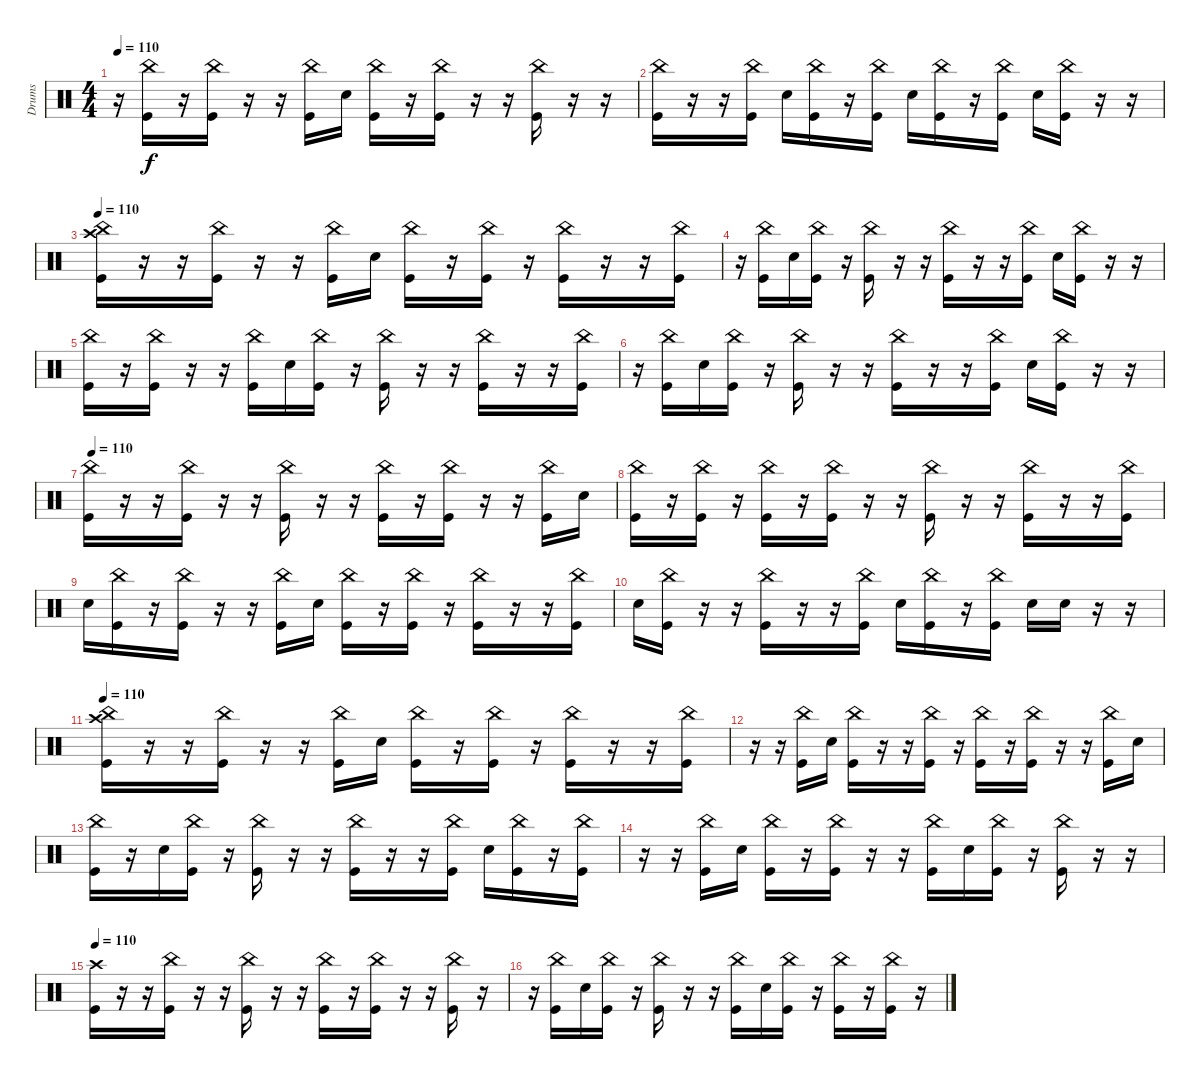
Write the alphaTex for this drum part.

\track ("Drums" "Drums") {instrument percussion}
\staff {score}
\articulation defaults
\ts (4 4)
\tempo 110
\clef neutral
\ks c
r.16{dy f} ("China (hit)" "Kick (hit)").16 r.16 ("China (hit)" "Kick (hit)").16 r.16 r.16 ("China (hit)" "Kick (hit)").16 "Snare (hit) 2".16 ("China (hit)" "Kick (hit)").16 r.16 ("China (hit)" "Kick (hit)").16 r.16 r.16 ("China (hit)" "Kick (hit)").16 r.16 r.16 |
("China (hit)" "Kick (hit)").16 r.16 r.16 ("China (hit)" "Kick (hit)").16 "Snare (hit) 2".16 ("China (hit)" "Kick (hit)").16 r.16 ("China (hit)" "Kick (hit)").16 "Snare (hit) 2".16 ("China (hit)" "Kick (hit)").16 r.16 ("China (hit)" "Kick (hit)").16 "Snare (hit) 2".16 ("China (hit)" "Kick (hit)").16 r.16 r.16 |
\tempo 110
("Crash high (hit)" "China (hit)" "Kick (hit)").16 r.16 r.16 ("China (hit)" "Kick (hit)").16 r.16 r.16 ("China (hit)" "Kick (hit)").16 "Snare (hit) 2".16 ("China (hit)" "Kick (hit)").16 r.16 ("China (hit)" "Kick (hit)").16 r.16 ("China (hit)" "Kick (hit)").16 r.16 r.16 ("China (hit)" "Kick (hit)").16 |
r.16 ("China (hit)" "Kick (hit)").16 "Snare (hit) 2".16 ("China (hit)" "Kick (hit)").16 r.16 ("China (hit)" "Kick (hit)").16 r.16 r.16 ("China (hit)" "Kick (hit)").16 r.16 r.16 ("China (hit)" "Kick (hit)").16 "Snare (hit) 2".16 ("China (hit)" "Kick (hit)").16 r.16 r.16 |
("China (hit)" "Kick (hit)").16 r.16 ("China (hit)" "Kick (hit)").16 r.16 r.16 ("China (hit)" "Kick (hit)").16 "Snare (hit) 2".16 ("China (hit)" "Kick (hit)").16 r.16 ("China (hit)" "Kick (hit)").16 r.16 r.16 ("China (hit)" "Kick (hit)").16 r.16 r.16 ("China (hit)" "Kick (hit)").16 |
r.16 ("China (hit)" "Kick (hit)").16 "Snare (hit) 2".16 ("China (hit)" "Kick (hit)").16 r.16 ("China (hit)" "Kick (hit)").16 r.16 r.16 ("China (hit)" "Kick (hit)").16 r.16 r.16 ("China (hit)" "Kick (hit)").16 "Snare (hit) 2".16 ("China (hit)" "Kick (hit)").16 r.16 r.16 |
\tempo 110
("China (hit)" "Kick (hit)").16 r.16 r.16 ("China (hit)" "Kick (hit)").16 r.16 r.16 ("China (hit)" "Kick (hit)").16 r.16 r.16 ("China (hit)" "Kick (hit)").16 r.16 ("China (hit)" "Kick (hit)").16 r.16 r.16 ("China (hit)" "Kick (hit)").16 "Snare (hit) 2".16 |
("China (hit)" "Kick (hit)").16 r.16 ("China (hit)" "Kick (hit)").16 r.16 ("China (hit)" "Kick (hit)").16 r.16 ("China (hit)" "Kick (hit)").16 r.16 r.16 ("China (hit)" "Kick (hit)").16 r.16 r.16 ("China (hit)" "Kick (hit)").16 r.16 r.16 ("China (hit)" "Kick (hit)").16 |
"Snare (hit) 2".16 ("China (hit)" "Kick (hit)").16 r.16 ("China (hit)" "Kick (hit)").16 r.16 r.16 ("China (hit)" "Kick (hit)").16 "Snare (hit) 2".16 ("China (hit)" "Kick (hit)").16 r.16 ("China (hit)" "Kick (hit)").16 r.16 ("China (hit)" "Kick (hit)").16 r.16 r.16 ("China (hit)" "Kick (hit)").16 |
"Snare (hit) 2".16 ("China (hit)" "Kick (hit)").16 r.16 r.16 ("China (hit)" "Kick (hit)").16 r.16 r.16 ("China (hit)" "Kick (hit)").16 "Snare (hit) 2".16 ("China (hit)" "Kick (hit)").16 r.16 ("China (hit)" "Kick (hit)").16 "Snare (hit) 2".16 "Snare (hit) 2".16 r.16 r.16 |
\tempo 110
("Crash high (hit)" "China (hit)" "Kick (hit)").16 r.16 r.16 ("China (hit)" "Kick (hit)").16 r.16 r.16 ("China (hit)" "Kick (hit)").16 "Snare (hit) 2".16 ("China (hit)" "Kick (hit)").16 r.16 ("China (hit)" "Kick (hit)").16 r.16 ("China (hit)" "Kick (hit)").16 r.16 r.16 ("China (hit)" "Kick (hit)").16 |
r.16 r.16 ("China (hit)" "Kick (hit)").16 "Snare (hit) 2".16 ("China (hit)" "Kick (hit)").16 r.16 r.16 ("China (hit)" "Kick (hit)").16 r.16 ("China (hit)" "Kick (hit)").16 r.16 ("China (hit)" "Kick (hit)").16 r.16 r.16 ("China (hit)" "Kick (hit)").16 "Snare (hit) 2".16 |
("China (hit)" "Kick (hit)").16 r.16 "Snare (hit) 2".16 ("China (hit)" "Kick (hit)").16 r.16 ("China (hit)" "Kick (hit)").16 r.16 r.16 ("China (hit)" "Kick (hit)").16 r.16 r.16 ("China (hit)" "Kick (hit)").16 "Snare (hit) 2".16 ("China (hit)" "Kick (hit)").16 r.16 ("China (hit)" "Kick (hit)").16 |
r.16 r.16 ("China (hit)" "Kick (hit)").16 "Snare (hit) 2".16 ("China (hit)" "Kick (hit)").16 r.16 ("China (hit)" "Kick (hit)").16 r.16 r.16 ("China (hit)" "Kick (hit)").16 "Snare (hit) 2".16 ("China (hit)" "Kick (hit)").16 r.16 ("China (hit)" "Kick (hit)").16 r.16 r.16 |
\tempo 110
("Crash high (hit)" "Kick (hit)").16 r.16 r.16 ("China (hit)" "Kick (hit)").16 r.16 r.16 ("China (hit)" "Kick (hit)").16 r.16 r.16 ("China (hit)" "Kick (hit)").16 r.16 ("China (hit)" "Kick (hit)").16 r.16 r.16 ("China (hit)" "Kick (hit)").16 r.16 |
r.16 ("China (hit)" "Kick (hit)").16 "Snare (hit) 2".16 ("China (hit)" "Kick (hit)").16 r.16 ("China (hit)" "Kick (hit)").16 r.16 r.16 ("China (hit)" "Kick (hit)").16 "Snare (hit) 2".16 ("China (hit)" "Kick (hit)").16 r.16 ("China (hit)" "Kick (hit)").16 r.16 ("China (hit)" "Kick (hit)").16 r.16
